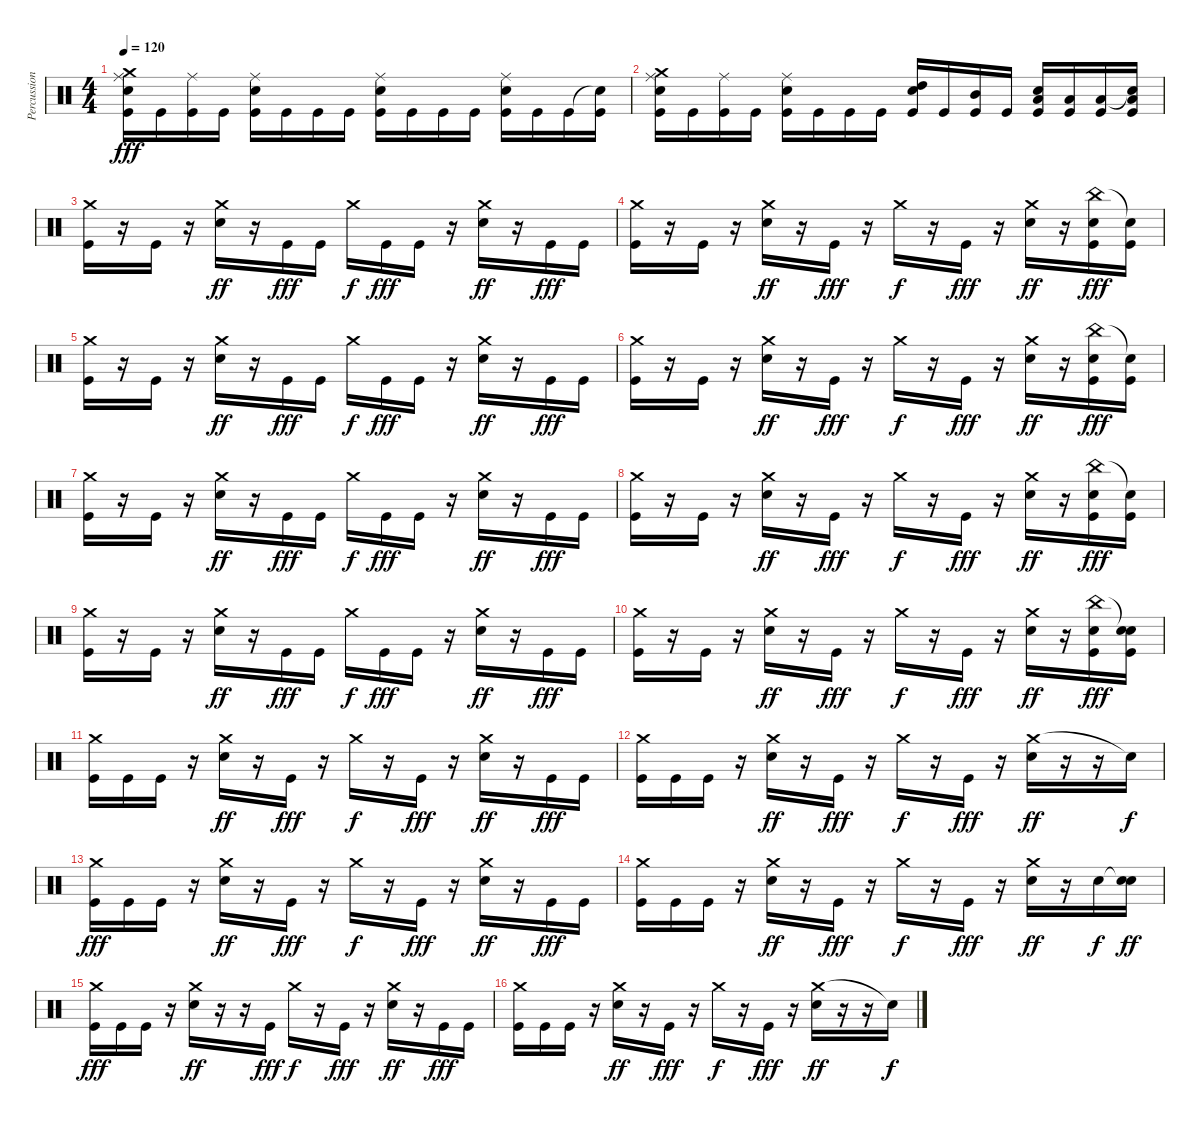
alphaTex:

\track ("Percussions" "Percussion") {instrument percussion}
\staff {score}
\articulation defaults
\ts (4 4)
\tempo 120
\clef neutral
\ks c
("Ride (middle)" "Crash medium (hit)" "Snare (hit) 2" "Kick (hit)").16{dy fff} "Kick (hit)".16 ("Ride (middle)" "Kick (hit)").16 "Kick (hit)".16 ("Ride (middle)" "Snare (hit) 2" "Kick (hit)").16 "Kick (hit)".16 "Kick (hit)".16 "Kick (hit)".16 ("Ride (middle)" "Snare (hit) 2" "Kick (hit)").16 "Kick (hit)".16 "Kick (hit)".16 "Kick (hit)".16 ("Ride (middle)" "Snare (hit) 2" "Kick (hit)").16 "Kick (hit)".16 "Kick (hit)".16 ("Snare (hit)"{t} "Kick (hit)").16 |
("Ride (middle)" "Crash medium (hit)" "Snare (hit) 2" "Kick (hit)").16 "Kick (hit)".16 ("Ride (middle)" "Kick (hit)").16 "Kick (hit)".16 ("Ride (middle)" "Snare (hit) 2" "Kick (hit)").16 "Kick (hit)".16 "Kick (hit)".16 "Kick (hit)".16 ("High Tom (hit)" "Snare (hit) 2" "Kick (hit)").16 "Kick (hit)".16 ("Mid Tom (hit)" "Kick (hit)").16 "Kick (hit)".16 ("Low Tom (hit)" "Snare (hit) 2" "Kick (hit)").16 ("Low Tom (hit)" "Kick (hit)").16 ("Low Floor Tom (hit)" "Kick (hit)").16 ("Snare (hit)"{t} "Low Floor Tom (hit)" "Kick (hit)").16 |
("Crash medium (hit)" "Kick (hit)").16 r.16 "Kick (hit)".16 r.16 ("Crash medium (hit)" "Electric Snare (hit)").16{dy ff} r.16 "Kick (hit)".16{dy fff} "Kick (hit)".16 "Crash medium (hit)".16{dy f} "Kick (hit)".16{dy fff} "Kick (hit)".16 r.16 ("Crash medium (hit)" "Electric Snare (hit)").16{dy ff} r.16 "Kick (hit)".16{dy fff} "Kick (hit)".16 |
("Crash medium (hit)" "Kick (hit)").16 r.16 "Kick (hit)".16 r.16 ("Crash medium (hit)" "Electric Snare (hit)").16{dy ff} r.16 "Kick (hit)".16{dy fff} r.16 "Crash medium (hit)".16{dy f} r.16 "Kick (hit)".16{dy fff} r.16 ("Crash medium (hit)" "Electric Snare (hit)").16{dy ff} r.16 ("China (hit)" "Electric Snare (hit)" "Kick (hit)").16{dy fff} ("Snare (hit)"{t} "Kick (hit)").16 |
("Crash medium (hit)" "Kick (hit)").16 r.16 "Kick (hit)".16 r.16 ("Crash medium (hit)" "Electric Snare (hit)").16{dy ff} r.16 "Kick (hit)".16{dy fff} "Kick (hit)".16 "Crash medium (hit)".16{dy f} "Kick (hit)".16{dy fff} "Kick (hit)".16 r.16 ("Crash medium (hit)" "Electric Snare (hit)").16{dy ff} r.16 "Kick (hit)".16{dy fff} "Kick (hit)".16 |
("Crash medium (hit)" "Kick (hit)").16 r.16 "Kick (hit)".16 r.16 ("Crash medium (hit)" "Electric Snare (hit)").16{dy ff} r.16 "Kick (hit)".16{dy fff} r.16 "Crash medium (hit)".16{dy f} r.16 "Kick (hit)".16{dy fff} r.16 ("Crash medium (hit)" "Electric Snare (hit)").16{dy ff} r.16 ("China (hit)" "Electric Snare (hit)" "Kick (hit)").16{dy fff} ("Snare (hit)"{t} "Kick (hit)").16 |
("Crash medium (hit)" "Kick (hit)").16 r.16 "Kick (hit)".16 r.16 ("Crash medium (hit)" "Electric Snare (hit)").16{dy ff} r.16 "Kick (hit)".16{dy fff} "Kick (hit)".16 "Crash medium (hit)".16{dy f} "Kick (hit)".16{dy fff} "Kick (hit)".16 r.16 ("Crash medium (hit)" "Electric Snare (hit)").16{dy ff} r.16 "Kick (hit)".16{dy fff} "Kick (hit)".16 |
("Crash medium (hit)" "Kick (hit)").16 r.16 "Kick (hit)".16 r.16 ("Crash medium (hit)" "Electric Snare (hit)").16{dy ff} r.16 "Kick (hit)".16{dy fff} r.16 "Crash medium (hit)".16{dy f} r.16 "Kick (hit)".16{dy fff} r.16 ("Crash medium (hit)" "Electric Snare (hit)").16{dy ff} r.16 ("China (hit)" "Electric Snare (hit)" "Kick (hit)").16{dy fff} ("Snare (hit)"{t} "Kick (hit)").16 |
("Crash medium (hit)" "Kick (hit)").16 r.16 "Kick (hit)".16 r.16 ("Crash medium (hit)" "Electric Snare (hit)").16{dy ff} r.16 "Kick (hit)".16{dy fff} "Kick (hit)".16 "Crash medium (hit)".16{dy f} "Kick (hit)".16{dy fff} "Kick (hit)".16 r.16 ("Crash medium (hit)" "Electric Snare (hit)").16{dy ff} r.16 "Kick (hit)".16{dy fff} "Kick (hit)".16 |
("Crash medium (hit)" "Kick (hit)").16 r.16 "Kick (hit)".16 r.16 ("Crash medium (hit)" "Electric Snare (hit)").16{dy ff} r.16 "Kick (hit)".16{dy fff} r.16 "Crash medium (hit)".16{dy f} r.16 "Kick (hit)".16{dy fff} r.16 ("Crash medium (hit)" "Electric Snare (hit)").16{dy ff} r.16 ("China (hit)" "Electric Snare (hit)" "Kick (hit)").16{dy fff} ("Snare (hit)"{t} "Electric Snare (hit)" "Kick (hit)").16 |
("Crash medium (hit)" "Kick (hit)").16 "Kick (hit)".16 "Kick (hit)".16 r.16 ("Crash medium (hit)" "Electric Snare (hit)").16{dy ff} r.16 "Kick (hit)".16{dy fff} r.16 "Crash medium (hit)".16{dy f} r.16 "Kick (hit)".16{dy fff} r.16 ("Crash medium (hit)" "Electric Snare (hit)").16{dy ff} r.16 "Kick (hit)".16{dy fff} "Kick (hit)".16 |
("Crash medium (hit)" "Kick (hit)").16 "Kick (hit)".16 "Kick (hit)".16 r.16 ("Crash medium (hit)" "Electric Snare (hit)").16{dy ff} r.16 "Kick (hit)".16{dy fff} r.16 "Crash medium (hit)".16{dy f} r.16 "Kick (hit)".16{dy fff} r.16 ("Crash medium (hit)" "Electric Snare (hit)").16{dy ff} r.16 r.16 "Snare (hit)"{t}.16{dy f} |
("Crash medium (hit)" "Kick (hit)").16{dy fff} "Kick (hit)".16 "Kick (hit)".16 r.16 ("Crash medium (hit)" "Electric Snare (hit)").16{dy ff} r.16 "Kick (hit)".16{dy fff} r.16 "Crash medium (hit)".16{dy f} r.16 "Kick (hit)".16{dy fff} r.16 ("Crash medium (hit)" "Electric Snare (hit)").16{dy ff} r.16 "Kick (hit)".16{dy fff} "Kick (hit)".16 |
("Crash medium (hit)" "Kick (hit)").16 "Kick (hit)".16 "Kick (hit)".16 r.16 ("Crash medium (hit)" "Electric Snare (hit)").16{dy ff} r.16 "Kick (hit)".16{dy fff} r.16 "Crash medium (hit)".16{dy f} r.16 "Kick (hit)".16{dy fff} r.16 ("Crash medium (hit)" "Electric Snare (hit)").16{dy ff} r.16 "Electric Snare (hit)".16{dy f} ("Snare (hit)"{t} "Electric Snare (hit)").16{dy ff} |
("Crash medium (hit)" "Kick (hit)").16{dy fff} "Kick (hit)".16 "Kick (hit)".16 r.16 ("Crash medium (hit)" "Electric Snare (hit)").16{dy ff} r.16 r.16 "Kick (hit)".16{dy fff} "Crash medium (hit)".16{dy f} r.16 "Kick (hit)".16{dy fff} r.16 ("Crash medium (hit)" "Electric Snare (hit)").16{dy ff} r.16 "Kick (hit)".16{dy fff} "Kick (hit)".16 |
("Crash medium (hit)" "Kick (hit)").16 "Kick (hit)".16 "Kick (hit)".16 r.16 ("Crash medium (hit)" "Electric Snare (hit)").16{dy ff} r.16 "Kick (hit)".16{dy fff} r.16 "Crash medium (hit)".16{dy f} r.16 "Kick (hit)".16{dy fff} r.16 ("Crash medium (hit)" "Electric Snare (hit)").16{dy ff} r.16 r.16 "Snare (hit)"{t}.16{dy f}
